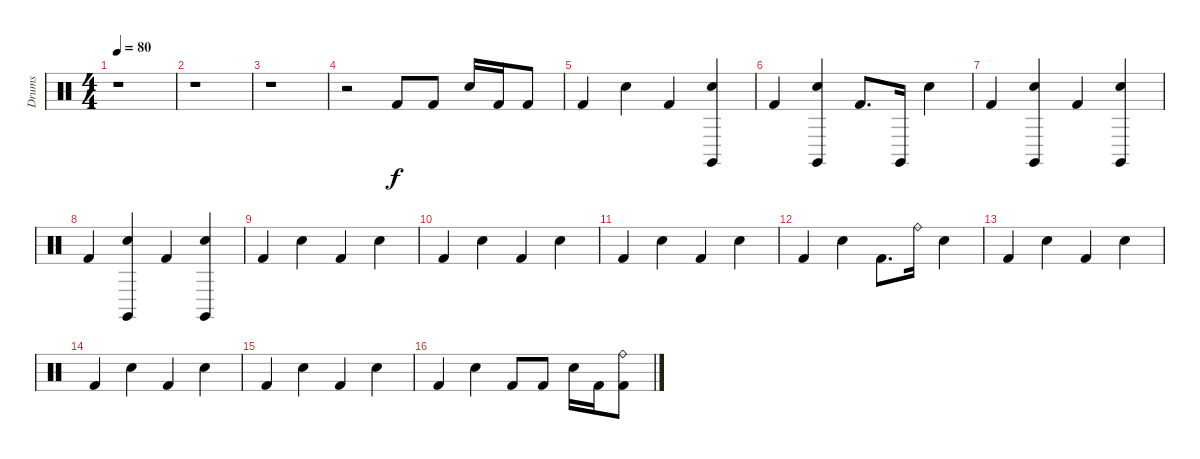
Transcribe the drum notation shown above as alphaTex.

\track ("Drums" "Drums") {instrument percussion}
\staff {score}
\articulation defaults
\ts (4 4)
\tempo 80
\clef neutral
\ks c
r.1{dy f} |
r.1 |
r.1 |
r.2 "Kick (hit) 2".8 "Kick (hit) 2".8 "Snare (hit) 2".16 "Kick (hit) 2".16 "Kick (hit) 2".8 |
"Kick (hit) 2".4 "Snare (hit) 2".4 "Kick (hit) 2".4 ("Claves (hit)" "Snare (hit) 2").4 |
"Kick (hit) 2".4 ("Claves (hit)" "Snare (hit) 2").4 "Kick (hit) 2".8{d} "Claves (hit)".16 "Snare (hit) 2".4 |
"Kick (hit) 2".4 ("Claves (hit)" "Snare (hit) 2").4 "Kick (hit) 2".4 ("Claves (hit)" "Snare (hit) 2").4 |
"Kick (hit) 2".4 ("Claves (hit)" "Snare (hit) 2").4 "Kick (hit) 2".4 ("Claves (hit)" "Snare (hit) 2").4 |
"Kick (hit) 2".4 "Snare (hit) 2".4 "Kick (hit) 2".4 "Snare (hit) 2".4 |
"Kick (hit) 2".4 "Snare (hit) 2".4 "Kick (hit) 2".4 "Snare (hit) 2".4 |
"Kick (hit) 2".4 "Snare (hit) 2".4 "Kick (hit) 2".4 "Snare (hit) 2".4 |
"Kick (hit) 2".4 "Snare (hit) 2".4 "Kick (hit) 2".8{d} "Ride (bell)".16 "Snare (hit) 2".4 |
"Kick (hit) 2".4 "Snare (hit) 2".4 "Kick (hit) 2".4 "Snare (hit) 2".4 |
"Kick (hit) 2".4 "Snare (hit) 2".4 "Kick (hit) 2".4 "Snare (hit) 2".4 |
"Kick (hit) 2".4 "Snare (hit) 2".4 "Kick (hit) 2".4 "Snare (hit) 2".4 |
"Kick (hit) 2".4 "Snare (hit) 2".4 "Kick (hit) 2".8 "Kick (hit) 2".8 "Snare (hit) 2".16 "Kick (hit) 2".16 ("Ride (bell)" "Kick (hit) 2").8
